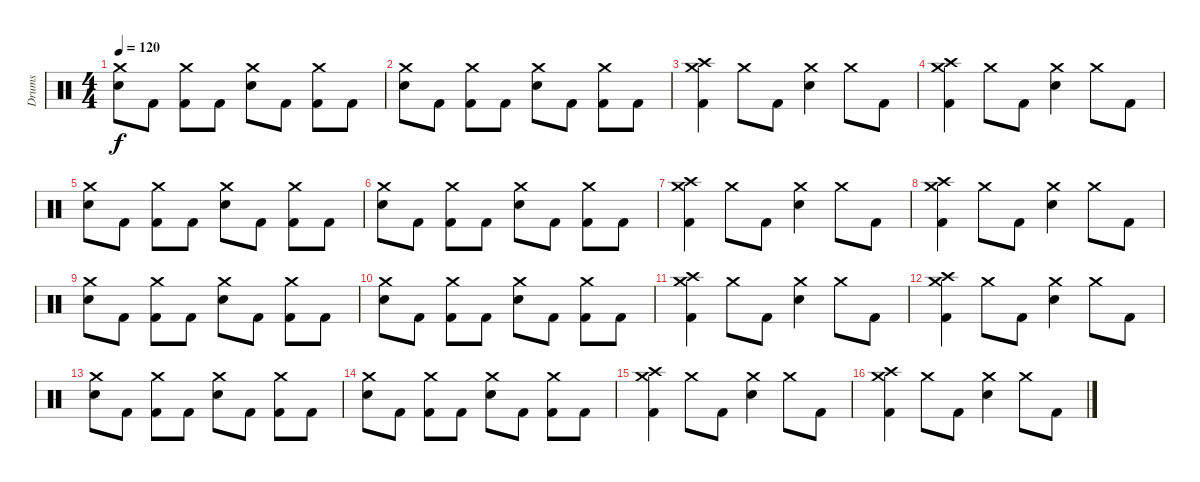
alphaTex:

\track ("Drums" "Drums") {instrument percussion bank 255}
\staff {score}
\articulation defaults
\ts (4 4)
\tempo 120
\clef neutral
\ks c
("Crash medium (hit)" "Electric Snare (hit)").8{dy f} "Kick (hit) 2".8 ("Crash medium (hit)" "Kick (hit) 2").8 "Kick (hit) 2".8 ("Crash medium (hit)" "Electric Snare (hit)").8 "Kick (hit) 2".8 ("Crash medium (hit)" "Kick (hit) 2").8 "Kick (hit) 2".8 |
("Crash medium (hit)" "Electric Snare (hit)").8 "Kick (hit) 2".8 ("Crash medium (hit)" "Kick (hit) 2").8 "Kick (hit) 2".8 ("Crash medium (hit)" "Electric Snare (hit)").8 "Kick (hit) 2".8 ("Crash medium (hit)" "Kick (hit) 2").8 "Kick (hit) 2".8 |
("Crash high (hit)" "Crash medium (hit)" "Kick (hit) 2").4 "Crash medium (hit)".8 "Kick (hit) 2".8 ("Crash medium (hit)" "Electric Snare (hit)").4 "Crash medium (hit)".8 "Kick (hit) 2".8 |
("Crash high (hit)" "Crash medium (hit)" "Kick (hit) 2").4 "Crash medium (hit)".8 "Kick (hit) 2".8 ("Crash medium (hit)" "Electric Snare (hit)").4 "Crash medium (hit)".8 "Kick (hit) 2".8 |
("Crash medium (hit)" "Electric Snare (hit)").8 "Kick (hit) 2".8 ("Crash medium (hit)" "Kick (hit) 2").8 "Kick (hit) 2".8 ("Crash medium (hit)" "Electric Snare (hit)").8 "Kick (hit) 2".8 ("Crash medium (hit)" "Kick (hit) 2").8 "Kick (hit) 2".8 |
("Crash medium (hit)" "Electric Snare (hit)").8 "Kick (hit) 2".8 ("Crash medium (hit)" "Kick (hit) 2").8 "Kick (hit) 2".8 ("Crash medium (hit)" "Electric Snare (hit)").8 "Kick (hit) 2".8 ("Crash medium (hit)" "Kick (hit) 2").8 "Kick (hit) 2".8 |
("Crash high (hit)" "Crash medium (hit)" "Kick (hit) 2").4 "Crash medium (hit)".8 "Kick (hit) 2".8 ("Crash medium (hit)" "Electric Snare (hit)").4 "Crash medium (hit)".8 "Kick (hit) 2".8 |
("Crash high (hit)" "Crash medium (hit)" "Kick (hit) 2").4 "Crash medium (hit)".8 "Kick (hit) 2".8 ("Crash medium (hit)" "Electric Snare (hit)").4 "Crash medium (hit)".8 "Kick (hit) 2".8 |
("Crash medium (hit)" "Electric Snare (hit)").8 "Kick (hit) 2".8 ("Crash medium (hit)" "Kick (hit) 2").8 "Kick (hit) 2".8 ("Crash medium (hit)" "Electric Snare (hit)").8 "Kick (hit) 2".8 ("Crash medium (hit)" "Kick (hit) 2").8 "Kick (hit) 2".8 |
("Crash medium (hit)" "Electric Snare (hit)").8 "Kick (hit) 2".8 ("Crash medium (hit)" "Kick (hit) 2").8 "Kick (hit) 2".8 ("Crash medium (hit)" "Electric Snare (hit)").8 "Kick (hit) 2".8 ("Crash medium (hit)" "Kick (hit) 2").8 "Kick (hit) 2".8 |
("Crash high (hit)" "Crash medium (hit)" "Kick (hit) 2").4 "Crash medium (hit)".8 "Kick (hit) 2".8 ("Crash medium (hit)" "Electric Snare (hit)").4 "Crash medium (hit)".8 "Kick (hit) 2".8 |
("Crash high (hit)" "Crash medium (hit)" "Kick (hit) 2").4 "Crash medium (hit)".8 "Kick (hit) 2".8 ("Crash medium (hit)" "Electric Snare (hit)").4 "Crash medium (hit)".8 "Kick (hit) 2".8 |
("Crash medium (hit)" "Electric Snare (hit)").8 "Kick (hit) 2".8 ("Crash medium (hit)" "Kick (hit) 2").8 "Kick (hit) 2".8 ("Crash medium (hit)" "Electric Snare (hit)").8 "Kick (hit) 2".8 ("Crash medium (hit)" "Kick (hit) 2").8 "Kick (hit) 2".8 |
("Crash medium (hit)" "Electric Snare (hit)").8 "Kick (hit) 2".8 ("Crash medium (hit)" "Kick (hit) 2").8 "Kick (hit) 2".8 ("Crash medium (hit)" "Electric Snare (hit)").8 "Kick (hit) 2".8 ("Crash medium (hit)" "Kick (hit) 2").8 "Kick (hit) 2".8 |
("Crash high (hit)" "Crash medium (hit)" "Kick (hit) 2").4 "Crash medium (hit)".8 "Kick (hit) 2".8 ("Crash medium (hit)" "Electric Snare (hit)").4 "Crash medium (hit)".8 "Kick (hit) 2".8 |
("Crash high (hit)" "Crash medium (hit)" "Kick (hit) 2").4 "Crash medium (hit)".8 "Kick (hit) 2".8 ("Crash medium (hit)" "Electric Snare (hit)").4 "Crash medium (hit)".8 "Kick (hit) 2".8
